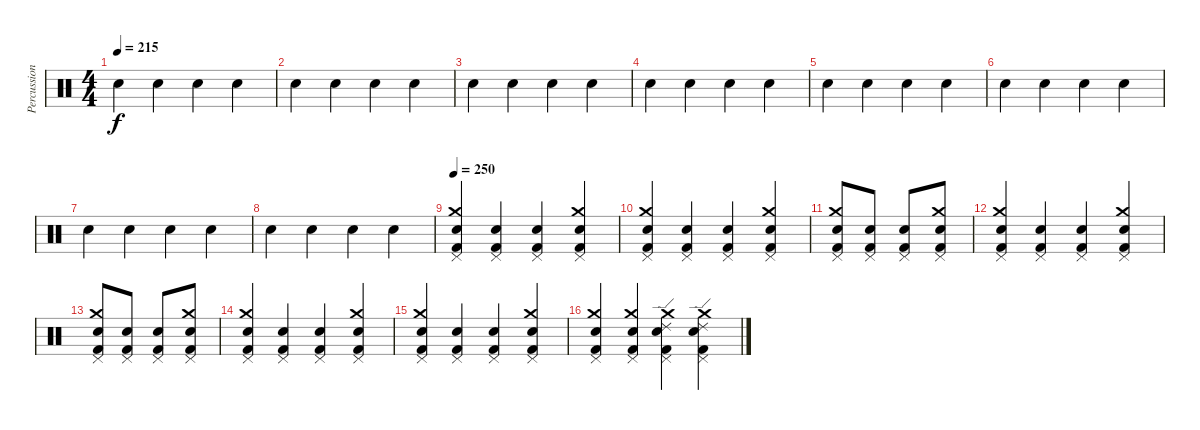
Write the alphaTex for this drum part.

\track ("Percussion" "Percussion") {instrument percussion}
\staff {score}
\articulation defaults
\ts (4 4)
\tempo 215
\clef neutral
\ks c "Snare (hit)".4{dy f} "Snare (hit)".4 "Snare (hit)".4 "Snare (hit)".4
|
"Snare (hit)".4 "Snare (hit)".4 "Snare (hit)".4 "Snare (hit)".4 |
"Snare (hit)".4 "Snare (hit)".4 "Snare (hit)".4 "Snare (hit)".4 |
"Snare (hit)".4 "Snare (hit)".4 "Snare (hit)".4 "Snare (hit)".4 |
"Snare (hit)".4 "Snare (hit)".4 "Snare (hit)".4 "Snare (hit)".4 |
"Snare (hit)".4 "Snare (hit)".4 "Snare (hit)".4 "Snare (hit)".4 |
"Snare (hit)".4 "Snare (hit)".4 "Snare (hit)".4 "Snare (hit)".4 |
"Snare (hit)".4 "Snare (hit)".4 "Snare (hit)".4 "Snare (hit)".4 |
\tempo 250
("Crash medium (hit)" "Pedal Hi-Hat (hit)" "Snare (hit) 2" "Kick (hit) 2").4 ("Pedal Hi-Hat (hit)" "Snare (hit) 2" "Kick (hit) 2").4 ("Pedal Hi-Hat (hit)" "Snare (hit) 2" "Kick (hit) 2").4 ("Crash medium (hit)" "Pedal Hi-Hat (hit)" "Snare (hit) 2" "Kick (hit) 2").4 |
("Crash medium (hit)" "Pedal Hi-Hat (hit)" "Snare (hit) 2" "Kick (hit) 2").4 ("Pedal Hi-Hat (hit)" "Snare (hit) 2" "Kick (hit) 2").4 ("Pedal Hi-Hat (hit)" "Snare (hit) 2" "Kick (hit) 2").4 ("Crash medium (hit)" "Pedal Hi-Hat (hit)" "Snare (hit) 2" "Kick (hit) 2").4 |
("Crash medium (hit)" "Pedal Hi-Hat (hit)" "Snare (hit) 2" "Kick (hit) 2").8 ("Pedal Hi-Hat (hit)" "Snare (hit) 2" "Kick (hit) 2").8 ("Pedal Hi-Hat (hit)" "Snare (hit) 2" "Kick (hit) 2").8 ("Crash medium (hit)" "Pedal Hi-Hat (hit)" "Snare (hit) 2" "Kick (hit) 2").8 |
("Crash medium (hit)" "Pedal Hi-Hat (hit)" "Snare (hit) 2" "Kick (hit) 2").4 ("Pedal Hi-Hat (hit)" "Snare (hit) 2" "Kick (hit) 2").4 ("Pedal Hi-Hat (hit)" "Snare (hit) 2" "Kick (hit) 2").4 ("Crash medium (hit)" "Pedal Hi-Hat (hit)" "Snare (hit) 2" "Kick (hit) 2").4 |
("Crash medium (hit)" "Pedal Hi-Hat (hit)" "Snare (hit) 2" "Kick (hit) 2").8 ("Pedal Hi-Hat (hit)" "Snare (hit) 2" "Kick (hit) 2").8 ("Pedal Hi-Hat (hit)" "Snare (hit) 2" "Kick (hit) 2").8 ("Crash medium (hit)" "Pedal Hi-Hat (hit)" "Snare (hit) 2" "Kick (hit) 2").8 |
("Crash medium (hit)" "Pedal Hi-Hat (hit)" "Snare (hit) 2" "Kick (hit) 2").4 ("Pedal Hi-Hat (hit)" "Snare (hit) 2" "Kick (hit) 2").4 ("Pedal Hi-Hat (hit)" "Snare (hit) 2" "Kick (hit) 2").4 ("Crash medium (hit)" "Pedal Hi-Hat (hit)" "Snare (hit) 2" "Kick (hit) 2").4 |
("Crash medium (hit)" "Pedal Hi-Hat (hit)" "Snare (hit) 2" "Kick (hit) 2").4 ("Pedal Hi-Hat (hit)" "Snare (hit) 2" "Kick (hit) 2").4 ("Pedal Hi-Hat (hit)" "Snare (hit) 2" "Kick (hit) 2").4 ("Crash medium (hit)" "Pedal Hi-Hat (hit)" "Snare (hit) 2" "Kick (hit) 2").4 |
("Crash medium (hit)" "Pedal Hi-Hat (hit)" "Snare (hit) 2" "Kick (hit) 2").4 ("Crash medium (hit)" "Pedal Hi-Hat (hit)" "Snare (hit) 2" "Kick (hit) 2").4 ("Ride (edge) 2" "Crash medium (hit)" "Pedal Hi-Hat (hit)" "Snare (hit) 2" "Kick (hit) 2").4 ("Ride (edge) 2" "Crash medium (hit)" "Pedal Hi-Hat (hit)" "Snare (hit) 2" "Kick (hit) 2").4
